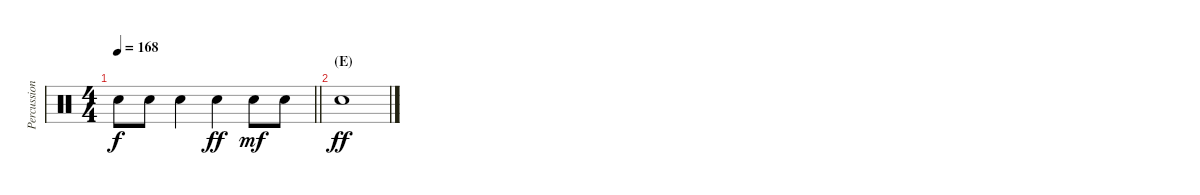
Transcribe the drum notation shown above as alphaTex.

\track ("Percussion" "Percussion") {instrument percussion}
\staff {score}
\articulation defaults
\ts (4 4)
\tempo 168
\clef neutral
\barLineRight lightlight
\ks c "Snare (hit) 2".8{dy f} "Snare (hit) 2".8 "Snare (hit) 2".4 "Snare (hit) 2".4{dy ff} "Snare (hit) 2".8{dy mf} "Snare (hit) 2".8
|
\section ("" "(E)")
"Snare (hit) 2".1{dy ff}
